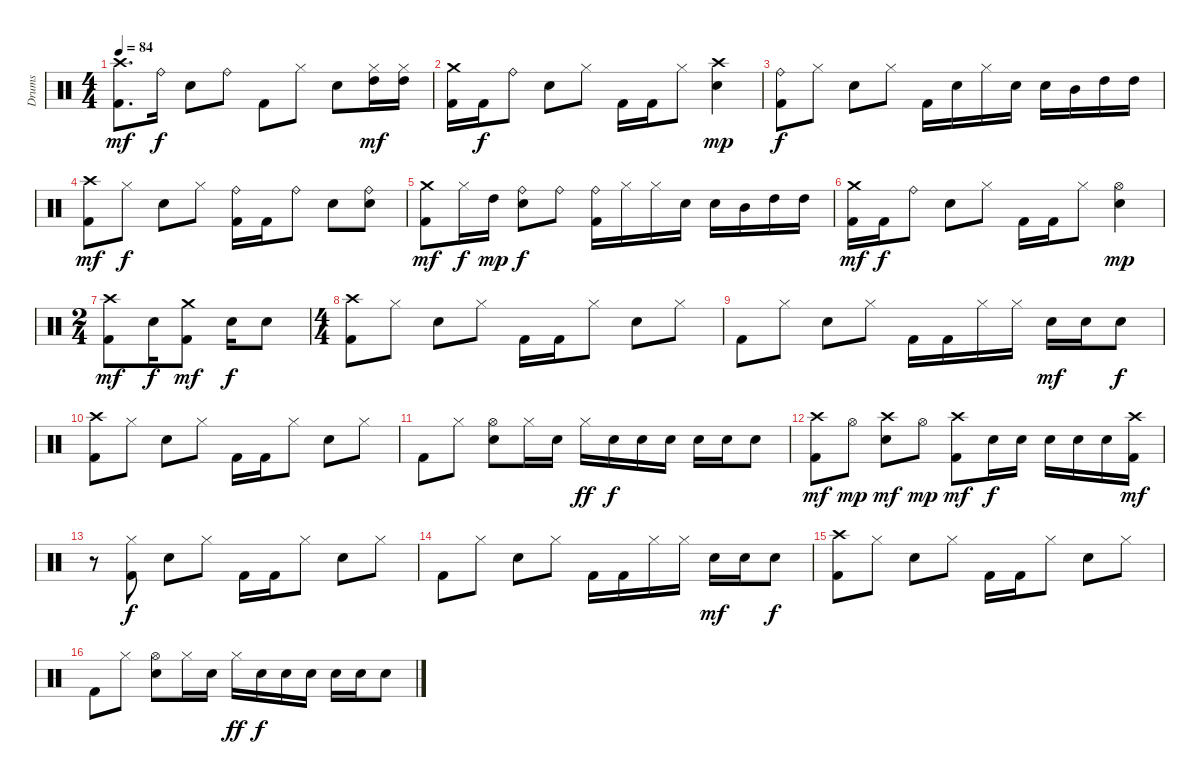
\track ("Drums" "Drums") {instrument percussion}
\staff {score}
\articulation defaults
\ts (4 4)
\tempo 84
\clef neutral
\ks c
("Kick (hit) 2" "Crash high (hit)").8{d dy mf} "Ride (bell)".16{dy f} "Snare (hit) 2".8 "Ride (bell)".8 "Kick (hit) 2".8 "Hi-Hat (closed)".8 "Snare (hit) 2".8 ("Hi-Hat (closed)" "High Tom (hit)").16{dy mf} ("Hi-Hat (closed)" "High Tom (hit)").16 |
("Kick (hit) 2" "Crash medium (hit)").16 "Kick (hit) 2".16{dy f} "Ride (bell)".8 "Snare (hit) 2".8 "Hi-Hat (closed)".8 "Kick (hit) 2".16 "Kick (hit) 2".16 "Hi-Hat (closed)".8 ("Snare (hit) 2" "Crash high (hit)").4{dy mp} |
("Kick (hit) 2" "Ride (bell)").8{dy f} "Hi-Hat (closed)".8 "Snare (hit) 2".8 "Hi-Hat (closed)".8 "Kick (hit) 2".16 "Snare (hit) 2".16 "Hi-Hat (closed)".16 "Snare (hit) 2".16 "Snare (hit) 2".16 "Mid Tom (hit)".16 "High Tom (hit)".16 "High Tom (hit)".16 |
("Kick (hit) 2" "Crash high (hit)").8{dy mf} "Hi-Hat (closed)".8{dy f} "Snare (hit) 2".8 "Hi-Hat (closed)".8 ("Kick (hit) 2" "Ride (bell)").16 "Kick (hit) 2".16 "Ride (bell)".8 "Snare (hit) 2".8 ("Snare (hit) 2" "Ride (bell)").8 |
("Kick (hit) 2" "Crash medium (hit)").8{dy mf} "Hi-Hat (closed)".16{dy f} "High Tom (hit)".16{dy mp} ("Snare (hit) 2" "Ride (bell)").8{dy f} "Ride (bell)".8 ("Kick (hit) 2" "Ride (bell)").16 "Hi-Hat (closed)".16 "Hi-Hat (closed)".16 "Snare (hit) 2".16 "Snare (hit) 2".16 "Mid Tom (hit)".16 "High Tom (hit)".16 "High Tom (hit)".16 |
("Kick (hit) 2" "Crash medium (hit)").16{dy mf} "Kick (hit) 2".16{dy f} "Ride (bell)".8 "Snare (hit) 2".8 "Hi-Hat (closed)".8 "Kick (hit) 2".16 "Kick (hit) 2".16 "Hi-Hat (closed)".8 ("Snare (hit) 2" "Hi-Hat (open)").4{dy mp} |
\ts (2 4)
("Kick (hit) 2" "Crash high (hit)").8{dy mf} "Snare (hit) 2".16{dy f} ("Kick (hit) 2" "Crash medium (hit)").8{dy mf} "Snare (hit) 2".16{dy f} "Snare (hit) 2".8 |
\ts (4 4)
("Kick (hit) 2" "Crash high (hit)").8 "Hi-Hat (closed)".8 "Snare (hit) 2".8 "Hi-Hat (closed)".8 "Kick (hit) 2".16 "Kick (hit) 2".16 "Hi-Hat (closed)".8 "Snare (hit) 2".8 "Hi-Hat (closed)".8 |
"Kick (hit) 2".8 "Hi-Hat (closed)".8 "Snare (hit) 2".8 "Hi-Hat (closed)".8 "Kick (hit) 2".16 "Kick (hit) 2".16 "Hi-Hat (closed)".16 "Hi-Hat (closed)".16 "Snare (hit) 2".16{dy mf} "Snare (hit) 2".16 "Snare (hit) 2".8{dy f} |
("Kick (hit) 2" "Crash high (hit)").8 "Hi-Hat (closed)".8 "Snare (hit) 2".8 "Hi-Hat (closed)".8 "Kick (hit) 2".16 "Kick (hit) 2".16 "Hi-Hat (closed)".8 "Snare (hit) 2".8 "Hi-Hat (closed)".8 |
"Kick (hit) 2".8 "Hi-Hat (closed)".8 ("Snare (hit) 2" "Hi-Hat (open)").8 "Hi-Hat (closed)".16 "Snare (hit) 2".16 "Hi-Hat (closed)".16{dy ff} "Snare (hit) 2".16{dy f} "Snare (hit) 2".16 "Snare (hit) 2".16 "Snare (hit) 2".16 "Snare (hit) 2".16 "Snare (hit) 2".8 |
("Kick (hit) 2" "Crash high (hit)").8{dy mf} "Hi-Hat (open)".8{dy mp} ("Snare (hit) 2" "Crash high (hit)").8{dy mf} "Hi-Hat (open)".8{dy mp} ("Kick (hit) 2" "Crash high (hit)").8{dy mf} "Snare (hit) 2".16{dy f} "Snare (hit) 2".16 "Snare (hit) 2".16 "Snare (hit) 2".16 "Snare (hit) 2".16 ("Kick (hit) 2" "Crash high (hit)").16{dy mf} |
r.8 ("Kick (hit) 2" "Hi-Hat (closed)").8{dy f} "Snare (hit) 2".8 "Hi-Hat (closed)".8 "Kick (hit) 2".16 "Kick (hit) 2".16 "Hi-Hat (closed)".8 "Snare (hit) 2".8 "Hi-Hat (closed)".8 |
"Kick (hit) 2".8 "Hi-Hat (closed)".8 "Snare (hit) 2".8 "Hi-Hat (closed)".8 "Kick (hit) 2".16 "Kick (hit) 2".16 "Hi-Hat (closed)".16 "Hi-Hat (closed)".16 "Snare (hit) 2".16{dy mf} "Snare (hit) 2".16 "Snare (hit) 2".8{dy f} |
("Kick (hit) 2" "Crash high (hit)").8 "Hi-Hat (closed)".8 "Snare (hit) 2".8 "Hi-Hat (closed)".8 "Kick (hit) 2".16 "Kick (hit) 2".16 "Hi-Hat (closed)".8 "Snare (hit) 2".8 "Hi-Hat (closed)".8 |
"Kick (hit) 2".8 "Hi-Hat (closed)".8 ("Snare (hit) 2" "Hi-Hat (open)").8 "Hi-Hat (closed)".16 "Snare (hit) 2".16 "Hi-Hat (closed)".16{dy ff} "Snare (hit) 2".16{dy f} "Snare (hit) 2".16 "Snare (hit) 2".16 "Snare (hit) 2".16 "Snare (hit) 2".16 "Snare (hit) 2".8
